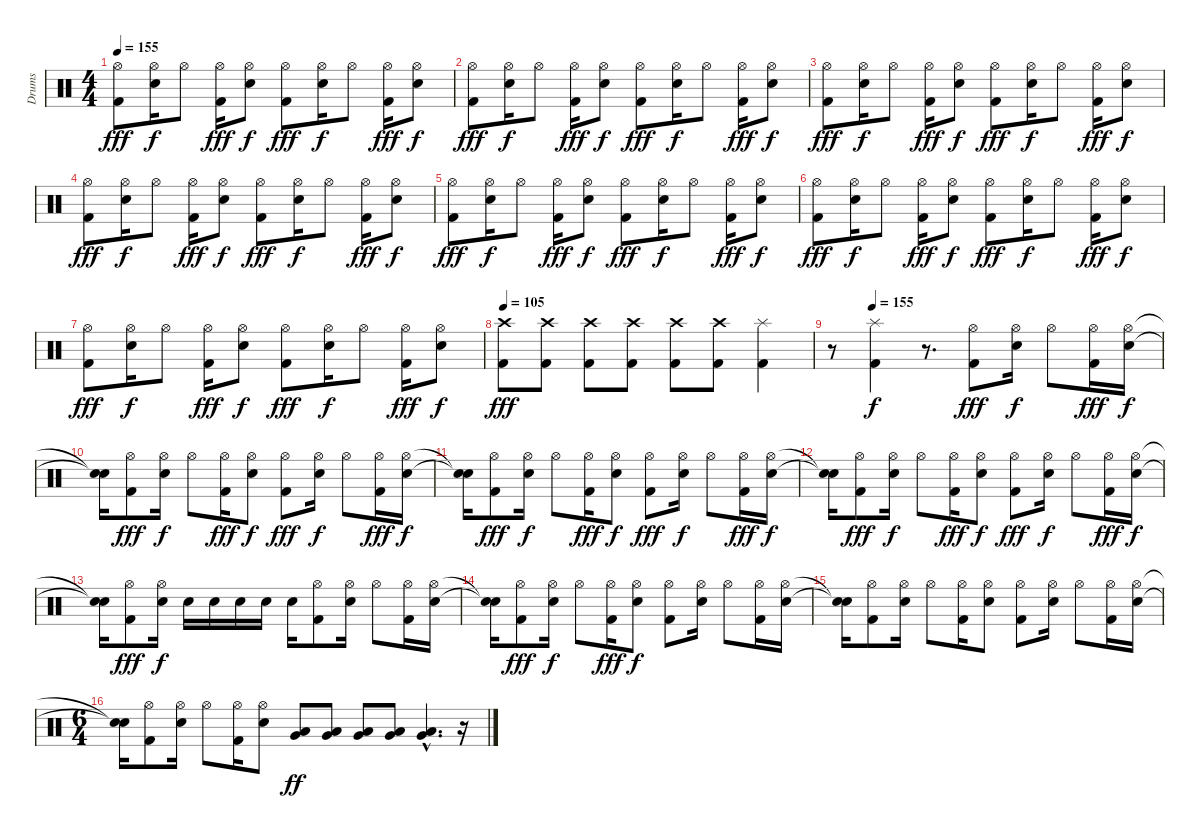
\track ("Drums" "Drums") {instrument percussion}
\staff {score}
\articulation defaults
\ts (4 4)
\tempo 155
\clef neutral
\ks c
("Kick (hit) 2" "Hi-Hat (open)").8{dy fff} ("Electric Snare (hit)" "Hi-Hat (open)").16{dy f} "Hi-Hat (open)".8 ("Kick (hit) 2" "Hi-Hat (open)").16{dy fff} ("Electric Snare (hit)" "Hi-Hat (open)").8{dy f} ("Kick (hit) 2" "Hi-Hat (open)").8{dy fff} ("Electric Snare (hit)" "Hi-Hat (open)").16{dy f} "Hi-Hat (open)".8 ("Kick (hit) 2" "Hi-Hat (open)").16{dy fff} ("Electric Snare (hit)" "Hi-Hat (open)").8{dy f} |
("Kick (hit) 2" "Hi-Hat (open)").8{dy fff} ("Electric Snare (hit)" "Hi-Hat (open)").16{dy f} "Hi-Hat (open)".8 ("Kick (hit) 2" "Hi-Hat (open)").16{dy fff} ("Electric Snare (hit)" "Hi-Hat (open)").8{dy f} ("Kick (hit) 2" "Hi-Hat (open)").8{dy fff} ("Electric Snare (hit)" "Hi-Hat (open)").16{dy f} "Hi-Hat (open)".8 ("Kick (hit) 2" "Hi-Hat (open)").16{dy fff} ("Electric Snare (hit)" "Hi-Hat (open)").8{dy f} |
("Kick (hit) 2" "Hi-Hat (open)").8{dy fff} ("Electric Snare (hit)" "Hi-Hat (open)").16{dy f} "Hi-Hat (open)".8 ("Kick (hit) 2" "Hi-Hat (open)").16{dy fff} ("Electric Snare (hit)" "Hi-Hat (open)").8{dy f} ("Kick (hit) 2" "Hi-Hat (open)").8{dy fff} ("Electric Snare (hit)" "Hi-Hat (open)").16{dy f} "Hi-Hat (open)".8 ("Kick (hit) 2" "Hi-Hat (open)").16{dy fff} ("Electric Snare (hit)" "Hi-Hat (open)").8{dy f} |
("Kick (hit) 2" "Hi-Hat (open)").8{dy fff} ("Electric Snare (hit)" "Hi-Hat (open)").16{dy f} "Hi-Hat (open)".8 ("Kick (hit) 2" "Hi-Hat (open)").16{dy fff} ("Electric Snare (hit)" "Hi-Hat (open)").8{dy f} ("Kick (hit) 2" "Hi-Hat (open)").8{dy fff} ("Electric Snare (hit)" "Hi-Hat (open)").16{dy f} "Hi-Hat (open)".8 ("Kick (hit) 2" "Hi-Hat (open)").16{dy fff} ("Electric Snare (hit)" "Hi-Hat (open)").8{dy f} |
("Kick (hit) 2" "Hi-Hat (open)").8{dy fff} ("Electric Snare (hit)" "Hi-Hat (open)").16{dy f} "Hi-Hat (open)".8 ("Kick (hit) 2" "Hi-Hat (open)").16{dy fff} ("Electric Snare (hit)" "Hi-Hat (open)").8{dy f} ("Kick (hit) 2" "Hi-Hat (open)").8{dy fff} ("Electric Snare (hit)" "Hi-Hat (open)").16{dy f} "Hi-Hat (open)".8 ("Kick (hit) 2" "Hi-Hat (open)").16{dy fff} ("Electric Snare (hit)" "Hi-Hat (open)").8{dy f} |
("Kick (hit) 2" "Hi-Hat (open)").8{dy fff} ("Electric Snare (hit)" "Hi-Hat (open)").16{dy f} "Hi-Hat (open)".8 ("Kick (hit) 2" "Hi-Hat (open)").16{dy fff} ("Electric Snare (hit)" "Hi-Hat (open)").8{dy f} ("Kick (hit) 2" "Hi-Hat (open)").8{dy fff} ("Electric Snare (hit)" "Hi-Hat (open)").16{dy f} "Hi-Hat (open)".8 ("Kick (hit) 2" "Hi-Hat (open)").16{dy fff} ("Electric Snare (hit)" "Hi-Hat (open)").8{dy f} |
("Kick (hit) 2" "Hi-Hat (open)").8{dy fff} ("Electric Snare (hit)" "Hi-Hat (open)").16{dy f} "Hi-Hat (open)".8 ("Kick (hit) 2" "Hi-Hat (open)").16{dy fff} ("Electric Snare (hit)" "Hi-Hat (open)").8{dy f} ("Kick (hit) 2" "Hi-Hat (open)").8{dy fff} ("Electric Snare (hit)" "Hi-Hat (open)").16{dy f} "Hi-Hat (open)".8 ("Kick (hit) 2" "Hi-Hat (open)").16{dy fff} ("Electric Snare (hit)" "Hi-Hat (open)").8{dy f} |
\tempo 105
("Kick (hit) 2" "Crash high (hit)").8{dy fff} ("Kick (hit) 2" "Crash high (hit)").8 ("Kick (hit) 2" "Crash high (hit)").8 ("Kick (hit) 2" "Crash high (hit)").8 ("Kick (hit) 2" "Crash high (hit)").8 ("Kick (hit) 2" "Crash high (hit)").8 ("Kick (hit) 2" "Splash (hit)").4 |
\tempo (155 0.125)
r.8 ("Kick (hit) 2" "Splash (hit)").4{dy f} r.8{d} ("Kick (hit) 2" "Hi-Hat (open)").8{dy fff} ("Electric Snare (hit)" "Hi-Hat (open)").16{dy f} "Hi-Hat (open)".8 ("Kick (hit) 2" "Hi-Hat (open)").16{dy fff} ("Electric Snare (hit)" "Hi-Hat (open)").16{dy f} |
("Snare (hit)"{t} "Snare (hit)"{t}).16 ("Kick (hit) 2" "Hi-Hat (open)").8{dy fff} ("Electric Snare (hit)" "Hi-Hat (open)").16{dy f} "Hi-Hat (open)".8 ("Kick (hit) 2" "Hi-Hat (open)").16{dy fff} ("Electric Snare (hit)" "Hi-Hat (open)").8{dy f} ("Kick (hit) 2" "Hi-Hat (open)").8{dy fff} ("Electric Snare (hit)" "Hi-Hat (open)").16{dy f} "Hi-Hat (open)".8 ("Kick (hit) 2" "Hi-Hat (open)").16{dy fff} ("Electric Snare (hit)" "Hi-Hat (open)").16{dy f} |
("Snare (hit)"{t} "Snare (hit)"{t}).16 ("Kick (hit) 2" "Hi-Hat (open)").8{dy fff} ("Electric Snare (hit)" "Hi-Hat (open)").16{dy f} "Hi-Hat (open)".8 ("Kick (hit) 2" "Hi-Hat (open)").16{dy fff} ("Electric Snare (hit)" "Hi-Hat (open)").8{dy f} ("Kick (hit) 2" "Hi-Hat (open)").8{dy fff} ("Electric Snare (hit)" "Hi-Hat (open)").16{dy f} "Hi-Hat (open)".8 ("Kick (hit) 2" "Hi-Hat (open)").16{dy fff} ("Electric Snare (hit)" "Hi-Hat (open)").16{dy f} |
("Snare (hit)"{t} "Snare (hit)"{t}).16 ("Kick (hit) 2" "Hi-Hat (open)").8{dy fff} ("Electric Snare (hit)" "Hi-Hat (open)").16{dy f} "Hi-Hat (open)".8 ("Kick (hit) 2" "Hi-Hat (open)").16{dy fff} ("Electric Snare (hit)" "Hi-Hat (open)").8{dy f} ("Kick (hit) 2" "Hi-Hat (open)").8{dy fff} ("Electric Snare (hit)" "Hi-Hat (open)").16{dy f} "Hi-Hat (open)".8 ("Kick (hit) 2" "Hi-Hat (open)").16{dy fff} ("Electric Snare (hit)" "Hi-Hat (open)").16{dy f} |
("Snare (hit)"{t} "Snare (hit)"{t}).16 ("Kick (hit) 2" "Hi-Hat (open)").8{dy fff} ("Electric Snare (hit)" "Hi-Hat (open)").16{dy f} "Electric Snare (hit)".16 "Electric Snare (hit)".16 "Electric Snare (hit)".16 "Electric Snare (hit)".16 "Electric Snare (hit)".16 ("Kick (hit) 2" "Hi-Hat (open)").8 ("Electric Snare (hit)" "Hi-Hat (open)").16 "Hi-Hat (open)".8 ("Kick (hit) 2" "Hi-Hat (open)").16 ("Electric Snare (hit)" "Hi-Hat (open)").16 |
("Snare (hit)"{t} "Snare (hit)"{t}).16 ("Kick (hit) 2" "Hi-Hat (open)").8{dy fff} ("Electric Snare (hit)" "Hi-Hat (open)").16{dy f} "Hi-Hat (open)".8 ("Kick (hit) 2" "Hi-Hat (open)").16{dy fff} ("Electric Snare (hit)" "Hi-Hat (open)").8{dy f} ("Kick (hit) 2" "Hi-Hat (open)").8 ("Electric Snare (hit)" "Hi-Hat (open)").16 "Hi-Hat (open)".8 ("Kick (hit) 2" "Hi-Hat (open)").16 ("Electric Snare (hit)" "Hi-Hat (open)").16 |
("Snare (hit)"{t} "Snare (hit)"{t}).16 ("Kick (hit) 2" "Hi-Hat (open)").8 ("Electric Snare (hit)" "Hi-Hat (open)").16 "Hi-Hat (open)".8 ("Kick (hit) 2" "Hi-Hat (open)").16 ("Electric Snare (hit)" "Hi-Hat (open)").8 ("Kick (hit) 2" "Hi-Hat (open)").8 ("Electric Snare (hit)" "Hi-Hat (open)").16 "Hi-Hat (open)".8 ("Kick (hit) 2" "Hi-Hat (open)").16 ("Electric Snare (hit)" "Hi-Hat (open)").16 |
\ts (6 4)
("Snare (hit)"{t} "Snare (hit)"{t}).16 ("Kick (hit) 2" "Hi-Hat (open)").8 ("Electric Snare (hit)" "Hi-Hat (open)").16 "Hi-Hat (open)".8 ("Kick (hit) 2" "Hi-Hat (open)").16 ("Electric Snare (hit)" "Hi-Hat (open)").8 ("Low Floor Tom (hit)" "Very Low Tom (hit)").8{dy ff} ("Low Floor Tom (hit)" "Very Low Tom (hit)").8 ("Low Floor Tom (hit)" "Very Low Tom (hit)").8 ("Low Floor Tom (hit)" "Very Low Tom (hit)").8 ("Low Floor Tom (hit)"{hac} "Very Low Tom (hit)"{hac}).4{d} r.16
